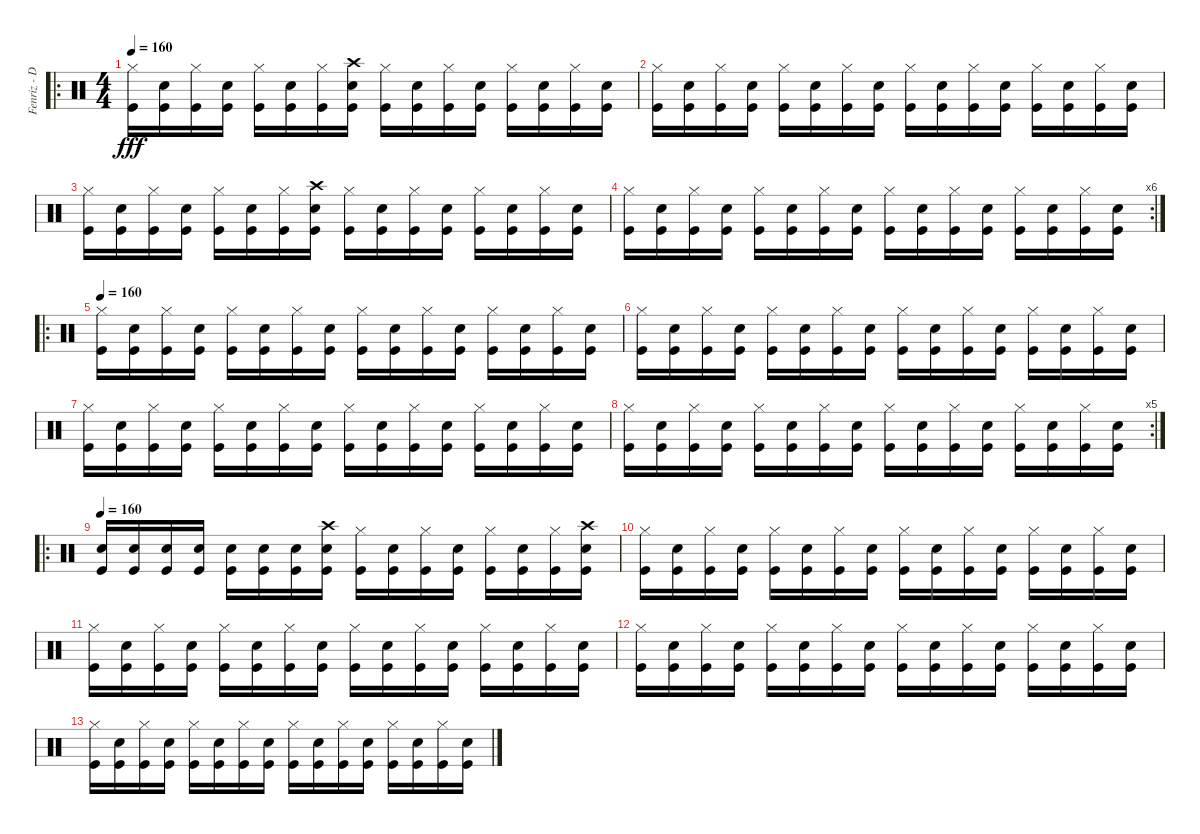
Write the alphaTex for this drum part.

\track ("Fenriz - Drums" "Fenriz - D") {instrument percussion}
\staff {score}
\articulation defaults
\ro
\ts (4 4)
\tempo 160
\clef neutral
\ks c
("Hi-Hat (closed)" "Kick (hit)").16{dy fff} ("Snare (hit) 2" "Kick (hit)").16 ("Hi-Hat (closed)" "Kick (hit)").16 ("Snare (hit) 2" "Kick (hit)").16 ("Hi-Hat (closed)" "Kick (hit)").16 ("Snare (hit) 2" "Kick (hit)").16 ("Hi-Hat (closed)" "Kick (hit)").16 ("Crash high (hit)" "Snare (hit) 2" "Kick (hit)").16 ("Hi-Hat (closed)" "Kick (hit)").16 ("Snare (hit) 2" "Kick (hit)").16 ("Hi-Hat (closed)" "Kick (hit)").16 ("Snare (hit) 2" "Kick (hit)").16 ("Hi-Hat (closed)" "Kick (hit)").16 ("Snare (hit) 2" "Kick (hit)").16 ("Hi-Hat (closed)" "Kick (hit)").16 ("Snare (hit) 2" "Kick (hit)").16 |
("Hi-Hat (closed)" "Kick (hit)").16 ("Snare (hit) 2" "Kick (hit)").16 ("Hi-Hat (closed)" "Kick (hit)").16 ("Snare (hit) 2" "Kick (hit)").16 ("Hi-Hat (closed)" "Kick (hit)").16 ("Snare (hit) 2" "Kick (hit)").16 ("Hi-Hat (closed)" "Kick (hit)").16 ("Snare (hit) 2" "Kick (hit)").16 ("Hi-Hat (closed)" "Kick (hit)").16 ("Snare (hit) 2" "Kick (hit)").16 ("Hi-Hat (closed)" "Kick (hit)").16 ("Snare (hit) 2" "Kick (hit)").16 ("Hi-Hat (closed)" "Kick (hit)").16 ("Snare (hit) 2" "Kick (hit)").16 ("Hi-Hat (closed)" "Kick (hit)").16 ("Snare (hit) 2" "Kick (hit)").16 |
("Hi-Hat (closed)" "Kick (hit)").16 ("Snare (hit) 2" "Kick (hit)").16 ("Hi-Hat (closed)" "Kick (hit)").16 ("Snare (hit) 2" "Kick (hit)").16 ("Hi-Hat (closed)" "Kick (hit)").16 ("Snare (hit) 2" "Kick (hit)").16 ("Hi-Hat (closed)" "Kick (hit)").16 ("Crash high (hit)" "Snare (hit) 2" "Kick (hit)").16 ("Hi-Hat (closed)" "Kick (hit)").16 ("Snare (hit) 2" "Kick (hit)").16 ("Hi-Hat (closed)" "Kick (hit)").16 ("Snare (hit) 2" "Kick (hit)").16 ("Hi-Hat (closed)" "Kick (hit)").16 ("Snare (hit) 2" "Kick (hit)").16 ("Hi-Hat (closed)" "Kick (hit)").16 ("Snare (hit) 2" "Kick (hit)").16 |
\rc 6
("Hi-Hat (closed)" "Kick (hit)").16 ("Snare (hit) 2" "Kick (hit)").16 ("Hi-Hat (closed)" "Kick (hit)").16 ("Snare (hit) 2" "Kick (hit)").16 ("Hi-Hat (closed)" "Kick (hit)").16 ("Snare (hit) 2" "Kick (hit)").16 ("Hi-Hat (closed)" "Kick (hit)").16 ("Snare (hit) 2" "Kick (hit)").16 ("Hi-Hat (closed)" "Kick (hit)").16 ("Snare (hit) 2" "Kick (hit)").16 ("Hi-Hat (closed)" "Kick (hit)").16 ("Snare (hit) 2" "Kick (hit)").16 ("Hi-Hat (closed)" "Kick (hit)").16 ("Snare (hit) 2" "Kick (hit)").16 ("Hi-Hat (closed)" "Kick (hit)").16 ("Snare (hit) 2" "Kick (hit)").16 |
\ro
\tempo 160
("Hi-Hat (closed)" "Kick (hit)").16 ("Snare (hit) 2" "Kick (hit)").16 ("Hi-Hat (closed)" "Kick (hit)").16 ("Snare (hit) 2" "Kick (hit)").16 ("Hi-Hat (closed)" "Kick (hit)").16 ("Snare (hit) 2" "Kick (hit)").16 ("Hi-Hat (closed)" "Kick (hit)").16 ("Snare (hit) 2" "Kick (hit)").16 ("Hi-Hat (closed)" "Kick (hit)").16 ("Snare (hit) 2" "Kick (hit)").16 ("Hi-Hat (closed)" "Kick (hit)").16 ("Snare (hit) 2" "Kick (hit)").16 ("Hi-Hat (closed)" "Kick (hit)").16 ("Snare (hit) 2" "Kick (hit)").16 ("Hi-Hat (closed)" "Kick (hit)").16 ("Snare (hit) 2" "Kick (hit)").16 |
("Hi-Hat (closed)" "Kick (hit)").16 ("Snare (hit) 2" "Kick (hit)").16 ("Hi-Hat (closed)" "Kick (hit)").16 ("Snare (hit) 2" "Kick (hit)").16 ("Hi-Hat (closed)" "Kick (hit)").16 ("Snare (hit) 2" "Kick (hit)").16 ("Hi-Hat (closed)" "Kick (hit)").16 ("Snare (hit) 2" "Kick (hit)").16 ("Hi-Hat (closed)" "Kick (hit)").16 ("Snare (hit) 2" "Kick (hit)").16 ("Hi-Hat (closed)" "Kick (hit)").16 ("Snare (hit) 2" "Kick (hit)").16 ("Hi-Hat (closed)" "Kick (hit)").16 ("Snare (hit) 2" "Kick (hit)").16 ("Hi-Hat (closed)" "Kick (hit)").16 ("Snare (hit) 2" "Kick (hit)").16 |
("Hi-Hat (closed)" "Kick (hit)").16 ("Snare (hit) 2" "Kick (hit)").16 ("Hi-Hat (closed)" "Kick (hit)").16 ("Snare (hit) 2" "Kick (hit)").16 ("Hi-Hat (closed)" "Kick (hit)").16 ("Snare (hit) 2" "Kick (hit)").16 ("Hi-Hat (closed)" "Kick (hit)").16 ("Snare (hit) 2" "Kick (hit)").16 ("Hi-Hat (closed)" "Kick (hit)").16 ("Snare (hit) 2" "Kick (hit)").16 ("Hi-Hat (closed)" "Kick (hit)").16 ("Snare (hit) 2" "Kick (hit)").16 ("Hi-Hat (closed)" "Kick (hit)").16 ("Snare (hit) 2" "Kick (hit)").16 ("Hi-Hat (closed)" "Kick (hit)").16 ("Snare (hit) 2" "Kick (hit)").16 |
\rc 5
("Hi-Hat (closed)" "Kick (hit)").16 ("Snare (hit) 2" "Kick (hit)").16 ("Hi-Hat (closed)" "Kick (hit)").16 ("Snare (hit) 2" "Kick (hit)").16 ("Hi-Hat (closed)" "Kick (hit)").16 ("Snare (hit) 2" "Kick (hit)").16 ("Hi-Hat (closed)" "Kick (hit)").16 ("Snare (hit) 2" "Kick (hit)").16 ("Hi-Hat (closed)" "Kick (hit)").16 ("Snare (hit) 2" "Kick (hit)").16 ("Hi-Hat (closed)" "Kick (hit)").16 ("Snare (hit) 2" "Kick (hit)").16 ("Hi-Hat (closed)" "Kick (hit)").16 ("Snare (hit) 2" "Kick (hit)").16 ("Hi-Hat (closed)" "Kick (hit)").16 ("Snare (hit) 2" "Kick (hit)").16 |
\ro
\tempo 160
("Snare (hit) 2" "Kick (hit)").16 ("Snare (hit) 2" "Kick (hit)").16 ("Snare (hit) 2" "Kick (hit)").16 ("Snare (hit) 2" "Kick (hit)").16 ("Snare (hit) 2" "Kick (hit)").16 ("Snare (hit) 2" "Kick (hit)").16 ("Snare (hit) 2" "Kick (hit)").16 ("Crash high (hit)" "Snare (hit) 2" "Kick (hit)").16 ("Hi-Hat (closed)" "Kick (hit)").16 ("Snare (hit) 2" "Kick (hit)").16 ("Hi-Hat (closed)" "Kick (hit)").16 ("Snare (hit) 2" "Kick (hit)").16 ("Hi-Hat (closed)" "Kick (hit)").16 ("Snare (hit) 2" "Kick (hit)").16 ("Hi-Hat (closed)" "Kick (hit)").16 ("Crash high (hit)" "Snare (hit) 2" "Kick (hit)").16 |
("Hi-Hat (closed)" "Kick (hit)").16 ("Snare (hit) 2" "Kick (hit)").16 ("Hi-Hat (closed)" "Kick (hit)").16 ("Snare (hit) 2" "Kick (hit)").16 ("Hi-Hat (closed)" "Kick (hit)").16 ("Snare (hit) 2" "Kick (hit)").16 ("Hi-Hat (closed)" "Kick (hit)").16 ("Snare (hit) 2" "Kick (hit)").16 ("Hi-Hat (closed)" "Kick (hit)").16 ("Snare (hit) 2" "Kick (hit)").16 ("Hi-Hat (closed)" "Kick (hit)").16 ("Snare (hit) 2" "Kick (hit)").16 ("Hi-Hat (closed)" "Kick (hit)").16 ("Snare (hit) 2" "Kick (hit)").16 ("Hi-Hat (closed)" "Kick (hit)").16 ("Snare (hit) 2" "Kick (hit)").16 |
("Hi-Hat (closed)" "Kick (hit)").16 ("Snare (hit) 2" "Kick (hit)").16 ("Hi-Hat (closed)" "Kick (hit)").16 ("Snare (hit) 2" "Kick (hit)").16 ("Hi-Hat (closed)" "Kick (hit)").16 ("Snare (hit) 2" "Kick (hit)").16 ("Hi-Hat (closed)" "Kick (hit)").16 ("Snare (hit) 2" "Kick (hit)").16 ("Hi-Hat (closed)" "Kick (hit)").16 ("Snare (hit) 2" "Kick (hit)").16 ("Hi-Hat (closed)" "Kick (hit)").16 ("Snare (hit) 2" "Kick (hit)").16 ("Hi-Hat (closed)" "Kick (hit)").16 ("Snare (hit) 2" "Kick (hit)").16 ("Hi-Hat (closed)" "Kick (hit)").16 ("Snare (hit) 2" "Kick (hit)").16 |
("Hi-Hat (closed)" "Kick (hit)").16 ("Snare (hit) 2" "Kick (hit)").16 ("Hi-Hat (closed)" "Kick (hit)").16 ("Snare (hit) 2" "Kick (hit)").16 ("Hi-Hat (closed)" "Kick (hit)").16 ("Snare (hit) 2" "Kick (hit)").16 ("Hi-Hat (closed)" "Kick (hit)").16 ("Snare (hit) 2" "Kick (hit)").16 ("Hi-Hat (closed)" "Kick (hit)").16 ("Snare (hit) 2" "Kick (hit)").16 ("Hi-Hat (closed)" "Kick (hit)").16 ("Snare (hit) 2" "Kick (hit)").16 ("Hi-Hat (closed)" "Kick (hit)").16 ("Snare (hit) 2" "Kick (hit)").16 ("Hi-Hat (closed)" "Kick (hit)").16 ("Snare (hit) 2" "Kick (hit)").16 |
("Hi-Hat (closed)" "Kick (hit)").16 ("Snare (hit) 2" "Kick (hit)").16 ("Hi-Hat (closed)" "Kick (hit)").16 ("Snare (hit) 2" "Kick (hit)").16 ("Hi-Hat (closed)" "Kick (hit)").16 ("Snare (hit) 2" "Kick (hit)").16 ("Hi-Hat (closed)" "Kick (hit)").16 ("Snare (hit) 2" "Kick (hit)").16 ("Hi-Hat (closed)" "Kick (hit)").16 ("Snare (hit) 2" "Kick (hit)").16 ("Hi-Hat (closed)" "Kick (hit)").16 ("Snare (hit) 2" "Kick (hit)").16 ("Hi-Hat (closed)" "Kick (hit)").16 ("Snare (hit) 2" "Kick (hit)").16 ("Hi-Hat (closed)" "Kick (hit)").16 ("Snare (hit) 2" "Kick (hit)").16
